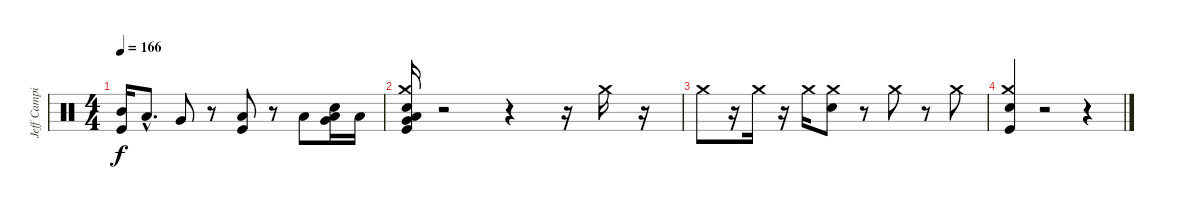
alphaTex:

\track ("Jeff Campitelli" "Jeff Campi") {instrument percussion}
\staff {score}
\articulation defaults
\ts (4 4)
\tempo 166
\clef neutral
\ks c
("Kick (hit)" "Mid Tom (hit)").16{dy f} "Low Tom (hit)"{hac}.8{d} "Very Low Tom (hit)".8 r.8 ("Kick (hit)" "Low Floor Tom (hit)").8 r.8 "Low Tom (hit)".8 ("Snare (hit)" "Low Tom (hit)" "Very Low Tom (hit)").16 "Low Floor Tom (hit)".16 |
("Crash medium (hit)" "Low Tom (hit)" "Electric Snare (hit)" "Very Low Tom (hit)" "Kick (hit)").16 r.2 r.4 r.16 "Crash medium (hit)".16 r.16 |
"Crash medium (hit)".8 r.16 "Crash medium (hit)".16 r.16 "Crash medium (hit)".16 ("Snare (hit)" "Crash medium (hit)").8 r.8 "Crash medium (hit)".8 r.8 "Crash medium (hit)".8 |
("Electric Snare (hit)" "Kick (hit)" "Crash medium (hit)").4 r.2 r.4
